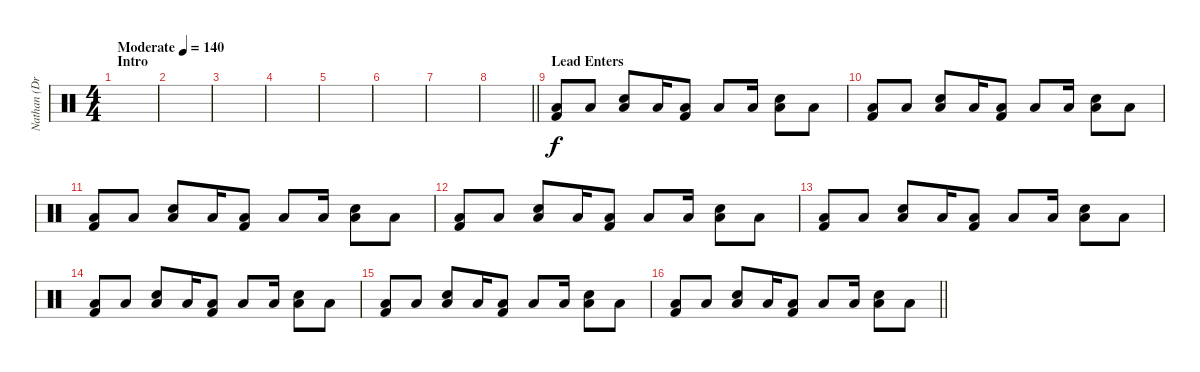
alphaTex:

\track ("Nathan (Drums)" "Nathan (Dr") {instrument percussion}
\staff {score}
\articulation defaults
\ts (4 4)
\section ("" "Intro")
\tempo (140 "Moderate")
\clef neutral
\ks c
|
|
|
|
|
|
|
\barLineRight lightlight
|
\section ("" "Lead Enters")
("Low Floor Tom (hit)" "Kick (hit) 2").8 "Low Floor Tom (hit)".8 ("Low Floor Tom (hit)" "Electric Snare (hit)").8 "Low Floor Tom (hit)".16 ("Low Tom (hit)" "Kick (hit) 2").8 "Low Tom (hit)".8 "Low Tom (hit)".16 ("Low Floor Tom (hit)" "Electric Snare (hit)").8 "Low Floor Tom (hit)".8 |
("Low Floor Tom (hit)" "Kick (hit) 2").8 "Low Floor Tom (hit)".8 ("Low Floor Tom (hit)" "Electric Snare (hit)").8 "Low Floor Tom (hit)".16 ("Low Tom (hit)" "Kick (hit) 2").8 "Low Tom (hit)".8 "Low Tom (hit)".16 ("Low Floor Tom (hit)" "Electric Snare (hit)").8 "Low Floor Tom (hit)".8 |
("Low Floor Tom (hit)" "Kick (hit) 2").8 "Low Floor Tom (hit)".8 ("Low Floor Tom (hit)" "Electric Snare (hit)").8 "Low Floor Tom (hit)".16 ("Low Tom (hit)" "Kick (hit) 2").8 "Low Tom (hit)".8 "Low Tom (hit)".16 ("Low Floor Tom (hit)" "Electric Snare (hit)").8 "Low Floor Tom (hit)".8 |
("Low Floor Tom (hit)" "Kick (hit) 2").8 "Low Floor Tom (hit)".8 ("Low Floor Tom (hit)" "Electric Snare (hit)").8 "Low Floor Tom (hit)".16 ("Low Tom (hit)" "Kick (hit) 2").8 "Low Tom (hit)".8 "Low Tom (hit)".16 ("Low Floor Tom (hit)" "Electric Snare (hit)").8 "Low Floor Tom (hit)".8 |
("Low Floor Tom (hit)" "Kick (hit) 2").8 "Low Floor Tom (hit)".8 ("Low Floor Tom (hit)" "Electric Snare (hit)").8 "Low Floor Tom (hit)".16 ("Low Tom (hit)" "Kick (hit) 2").8 "Low Tom (hit)".8 "Low Tom (hit)".16 ("Low Floor Tom (hit)" "Electric Snare (hit)").8 "Low Floor Tom (hit)".8 |
("Low Floor Tom (hit)" "Kick (hit) 2").8 "Low Floor Tom (hit)".8 ("Low Floor Tom (hit)" "Electric Snare (hit)").8 "Low Floor Tom (hit)".16 ("Low Tom (hit)" "Kick (hit) 2").8 "Low Tom (hit)".8 "Low Tom (hit)".16 ("Low Floor Tom (hit)" "Electric Snare (hit)").8 "Low Floor Tom (hit)".8 |
("Low Floor Tom (hit)" "Kick (hit) 2").8 "Low Floor Tom (hit)".8 ("Low Floor Tom (hit)" "Electric Snare (hit)").8 "Low Floor Tom (hit)".16 ("Low Tom (hit)" "Kick (hit) 2").8 "Low Tom (hit)".8 "Low Tom (hit)".16 ("Low Floor Tom (hit)" "Electric Snare (hit)").8 "Low Floor Tom (hit)".8 |
\barLineRight lightlight
("Low Floor Tom (hit)" "Kick (hit) 2").8 "Low Floor Tom (hit)".8 ("Low Floor Tom (hit)" "Electric Snare (hit)").8 "Low Floor Tom (hit)".16 ("Low Tom (hit)" "Kick (hit) 2").8 "Low Tom (hit)".8 "Low Tom (hit)".16 ("Low Floor Tom (hit)" "Electric Snare (hit)").8 "Low Floor Tom (hit)".8
